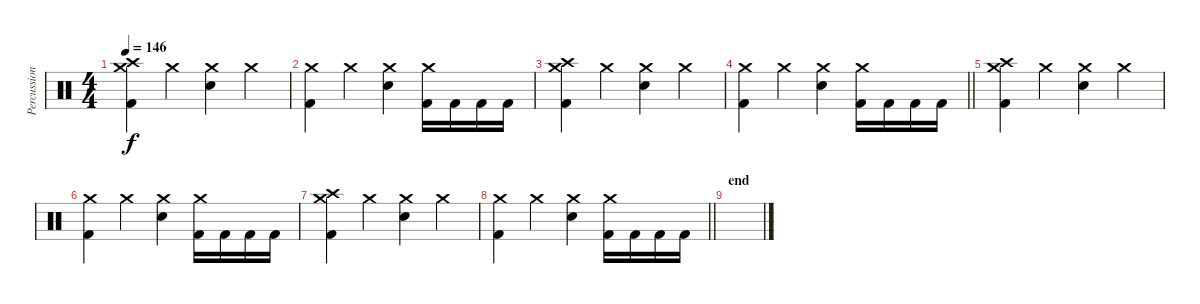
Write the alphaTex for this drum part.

\track ("Percussion" "Percussion") {instrument percussion}
\staff {score}
\articulation defaults
\ts (4 4)
\tempo 146
\clef neutral
\ks c
("Crash high (hit)" "Crash medium (hit)" "Kick (hit) 2").4{dy f} "Crash medium (hit)".4 ("Crash medium (hit)" "Snare (hit) 2").4 "Crash medium (hit)".4 |
("Crash medium (hit)" "Kick (hit) 2").4 "Crash medium (hit)".4 ("Crash medium (hit)" "Snare (hit) 2").4 ("Crash medium (hit)" "Kick (hit) 2").16 "Kick (hit) 2".16 "Kick (hit) 2".16 "Kick (hit) 2".16 |
("Crash high (hit)" "Crash medium (hit)" "Kick (hit) 2").4 "Crash medium (hit)".4 ("Crash medium (hit)" "Snare (hit) 2").4 "Crash medium (hit)".4 |
\barLineRight lightlight
("Crash medium (hit)" "Kick (hit) 2").4 "Crash medium (hit)".4 ("Crash medium (hit)" "Snare (hit) 2").4 ("Crash medium (hit)" "Kick (hit) 2").16 "Kick (hit) 2".16 "Kick (hit) 2".16 "Kick (hit) 2".16 |
("Crash high (hit)" "Crash medium (hit)" "Kick (hit) 2").4 "Crash medium (hit)".4 ("Crash medium (hit)" "Snare (hit) 2").4 "Crash medium (hit)".4 |
("Crash medium (hit)" "Kick (hit) 2").4 "Crash medium (hit)".4 ("Crash medium (hit)" "Snare (hit) 2").4 ("Crash medium (hit)" "Kick (hit) 2").16 "Kick (hit) 2".16 "Kick (hit) 2".16 "Kick (hit) 2".16 |
("Crash high (hit)" "Crash medium (hit)" "Kick (hit) 2").4 "Crash medium (hit)".4 ("Crash medium (hit)" "Snare (hit) 2").4 "Crash medium (hit)".4 |
\barLineRight lightlight
("Crash medium (hit)" "Kick (hit) 2").4 "Crash medium (hit)".4 ("Crash medium (hit)" "Snare (hit) 2").4 ("Crash medium (hit)" "Kick (hit) 2").16 "Kick (hit) 2".16 "Kick (hit) 2".16 "Kick (hit) 2".16 |
\section ("" "end")
